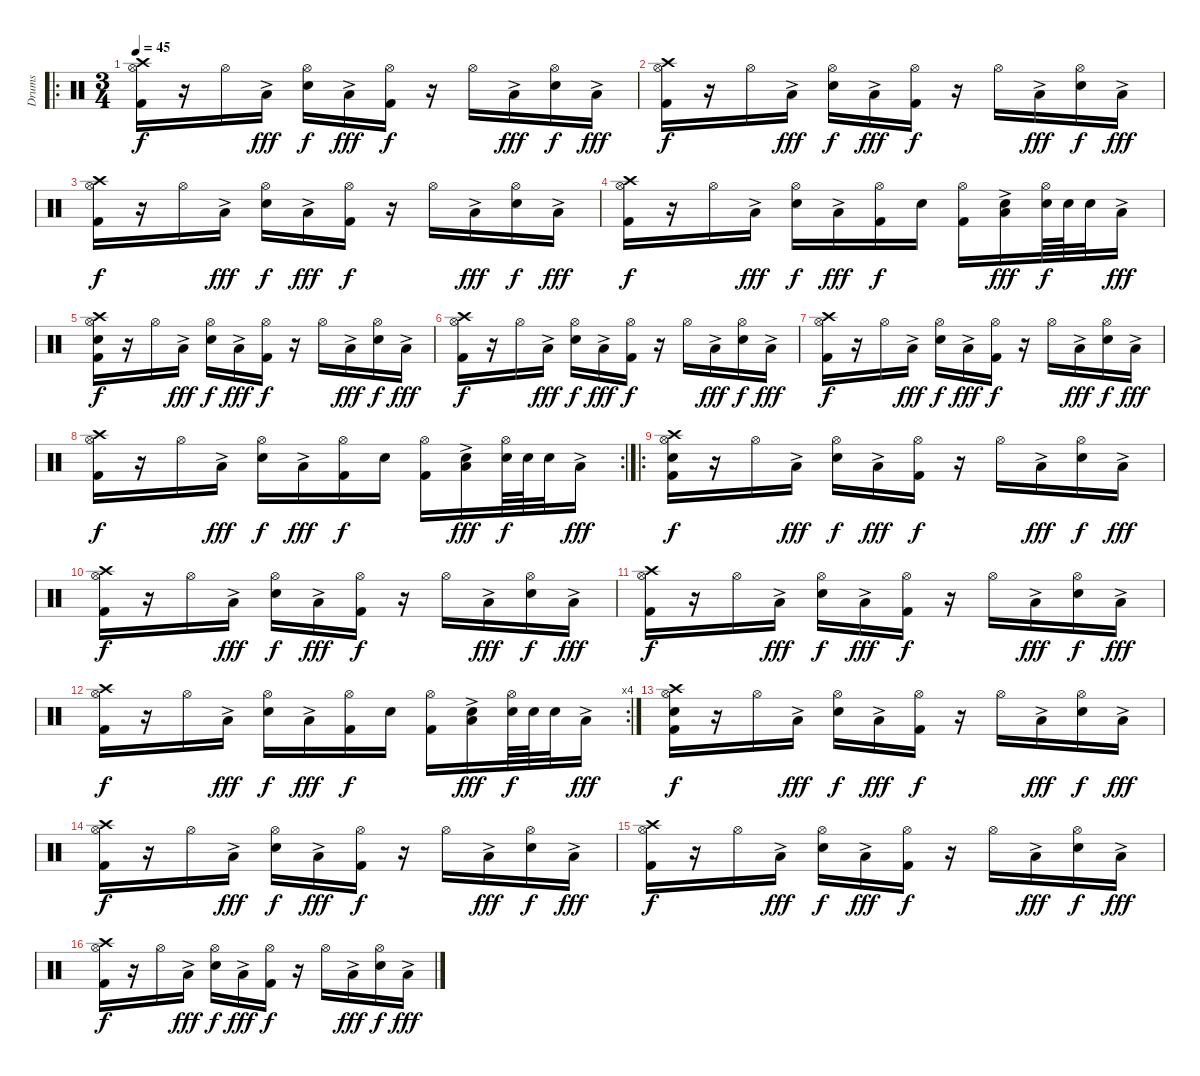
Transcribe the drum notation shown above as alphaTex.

\track ("Drums" "Drums") {instrument percussion}
\staff {score}
\articulation defaults
\ro
\ts (3 4)
\tempo 45
\clef neutral
\ks c
("Crash high (hit)" "Hi-Hat (open)" "Kick (hit) 2").16{dy f volume 16} r.16 "Hi-Hat (open)".16 "Low Floor Tom (hit)"{ac}.16{dy fff} ("Hi-Hat (open)" "Snare (hit) 2").16{dy f} "Low Floor Tom (hit)"{ac}.16{dy fff} ("Hi-Hat (open)" "Kick (hit) 2").16{dy f} r.16 "Hi-Hat (open)".16 "Low Floor Tom (hit)"{ac}.16{dy fff} ("Hi-Hat (open)" "Snare (hit) 2").16{dy f} "Low Floor Tom (hit)"{ac}.16{dy fff} |
("Crash high (hit)" "Hi-Hat (open)" "Kick (hit) 2").16{dy f} r.16 "Hi-Hat (open)".16 "Low Floor Tom (hit)"{ac}.16{dy fff} ("Hi-Hat (open)" "Snare (hit) 2").16{dy f} "Low Floor Tom (hit)"{ac}.16{dy fff} ("Hi-Hat (open)" "Kick (hit) 2").16{dy f} r.16 "Hi-Hat (open)".16 "Low Floor Tom (hit)"{ac}.16{dy fff} ("Hi-Hat (open)" "Snare (hit) 2").16{dy f} "Low Floor Tom (hit)"{ac}.16{dy fff} |
("Crash high (hit)" "Hi-Hat (open)" "Kick (hit) 2").16{dy f} r.16 "Hi-Hat (open)".16 "Low Floor Tom (hit)"{ac}.16{dy fff} ("Hi-Hat (open)" "Snare (hit) 2").16{dy f} "Low Floor Tom (hit)"{ac}.16{dy fff} ("Hi-Hat (open)" "Kick (hit) 2").16{dy f} r.16 "Hi-Hat (open)".16 "Low Floor Tom (hit)"{ac}.16{dy fff} ("Hi-Hat (open)" "Snare (hit) 2").16{dy f} "Low Floor Tom (hit)"{ac}.16{dy fff} |
("Crash high (hit)" "Hi-Hat (open)" "Kick (hit) 2").16{dy f} r.16 "Hi-Hat (open)".16 "Low Floor Tom (hit)"{ac}.16{dy fff} ("Hi-Hat (open)" "Snare (hit) 2").16{dy f} "Low Floor Tom (hit)"{ac}.16{dy fff} ("Hi-Hat (open)" "Kick (hit) 2").16{dy f} "Snare (hit) 2".16 ("Hi-Hat (open)" "Kick (hit) 2").16 ("Snare (hit) 2" "Low Floor Tom (hit)"{ac}).16{dy fff} ("Hi-Hat (open)" "Snare (hit) 2").64{dy f} "Snare (hit) 2".64 "Snare (hit) 2".32 "Low Floor Tom (hit)"{ac}.16{dy fff} |
("Crash high (hit)" "Hi-Hat (open)" "Snare (hit) 2" "Kick (hit) 2").16{dy f} r.16 "Hi-Hat (open)".16 "Low Floor Tom (hit)"{ac}.16{dy fff} ("Hi-Hat (open)" "Snare (hit) 2").16{dy f} "Low Floor Tom (hit)"{ac}.16{dy fff} ("Hi-Hat (open)" "Kick (hit) 2").16{dy f} r.16 "Hi-Hat (open)".16 "Low Floor Tom (hit)"{ac}.16{dy fff} ("Hi-Hat (open)" "Snare (hit) 2").16{dy f} "Low Floor Tom (hit)"{ac}.16{dy fff} |
("Crash high (hit)" "Hi-Hat (open)" "Kick (hit) 2").16{dy f} r.16 "Hi-Hat (open)".16 "Low Floor Tom (hit)"{ac}.16{dy fff} ("Hi-Hat (open)" "Snare (hit) 2").16{dy f} "Low Floor Tom (hit)"{ac}.16{dy fff} ("Hi-Hat (open)" "Kick (hit) 2").16{dy f} r.16 "Hi-Hat (open)".16 "Low Floor Tom (hit)"{ac}.16{dy fff} ("Hi-Hat (open)" "Snare (hit) 2").16{dy f} "Low Floor Tom (hit)"{ac}.16{dy fff} |
("Crash high (hit)" "Hi-Hat (open)" "Kick (hit) 2").16{dy f} r.16 "Hi-Hat (open)".16 "Low Floor Tom (hit)"{ac}.16{dy fff} ("Hi-Hat (open)" "Snare (hit) 2").16{dy f} "Low Floor Tom (hit)"{ac}.16{dy fff} ("Hi-Hat (open)" "Kick (hit) 2").16{dy f} r.16 "Hi-Hat (open)".16 "Low Floor Tom (hit)"{ac}.16{dy fff} ("Hi-Hat (open)" "Snare (hit) 2").16{dy f} "Low Floor Tom (hit)"{ac}.16{dy fff} |
\rc 2
("Crash high (hit)" "Hi-Hat (open)" "Kick (hit) 2").16{dy f} r.16 "Hi-Hat (open)".16 "Low Floor Tom (hit)"{ac}.16{dy fff} ("Hi-Hat (open)" "Snare (hit) 2").16{dy f} "Low Floor Tom (hit)"{ac}.16{dy fff} ("Hi-Hat (open)" "Kick (hit) 2").16{dy f} "Snare (hit) 2".16 ("Hi-Hat (open)" "Kick (hit) 2").16 ("Snare (hit) 2" "Low Floor Tom (hit)"{ac}).16{dy fff} ("Hi-Hat (open)" "Snare (hit) 2").64{dy f} "Snare (hit) 2".64 "Snare (hit) 2".32 "Low Floor Tom (hit)"{ac}.16{dy fff} |
\ro
("Crash high (hit)" "Hi-Hat (open)" "Snare (hit) 2" "Kick (hit) 2").16{dy f} r.16 "Hi-Hat (open)".16 "Low Floor Tom (hit)"{ac}.16{dy fff} ("Hi-Hat (open)" "Snare (hit) 2").16{dy f} "Low Floor Tom (hit)"{ac}.16{dy fff} ("Hi-Hat (open)" "Kick (hit) 2").16{dy f} r.16 "Hi-Hat (open)".16 "Low Floor Tom (hit)"{ac}.16{dy fff} ("Hi-Hat (open)" "Snare (hit) 2").16{dy f} "Low Floor Tom (hit)"{ac}.16{dy fff} |
("Crash high (hit)" "Hi-Hat (open)" "Kick (hit) 2").16{dy f} r.16 "Hi-Hat (open)".16 "Low Floor Tom (hit)"{ac}.16{dy fff} ("Hi-Hat (open)" "Snare (hit) 2").16{dy f} "Low Floor Tom (hit)"{ac}.16{dy fff} ("Hi-Hat (open)" "Kick (hit) 2").16{dy f} r.16 "Hi-Hat (open)".16 "Low Floor Tom (hit)"{ac}.16{dy fff} ("Hi-Hat (open)" "Snare (hit) 2").16{dy f} "Low Floor Tom (hit)"{ac}.16{dy fff} |
("Crash high (hit)" "Hi-Hat (open)" "Kick (hit) 2").16{dy f} r.16 "Hi-Hat (open)".16 "Low Floor Tom (hit)"{ac}.16{dy fff} ("Hi-Hat (open)" "Snare (hit) 2").16{dy f} "Low Floor Tom (hit)"{ac}.16{dy fff} ("Hi-Hat (open)" "Kick (hit) 2").16{dy f} r.16 "Hi-Hat (open)".16 "Low Floor Tom (hit)"{ac}.16{dy fff} ("Hi-Hat (open)" "Snare (hit) 2").16{dy f} "Low Floor Tom (hit)"{ac}.16{dy fff} |
\rc 4
("Crash high (hit)" "Hi-Hat (open)" "Kick (hit) 2").16{dy f} r.16 "Hi-Hat (open)".16 "Low Floor Tom (hit)"{ac}.16{dy fff} ("Hi-Hat (open)" "Snare (hit) 2").16{dy f} "Low Floor Tom (hit)"{ac}.16{dy fff} ("Hi-Hat (open)" "Kick (hit) 2").16{dy f} "Snare (hit) 2".16 ("Hi-Hat (open)" "Kick (hit) 2").16 ("Snare (hit) 2" "Low Floor Tom (hit)"{ac}).16{dy fff} ("Hi-Hat (open)" "Snare (hit) 2").64{dy f} "Snare (hit) 2".64 "Snare (hit) 2".32 "Low Floor Tom (hit)"{ac}.16{dy fff} |
("Crash high (hit)" "Hi-Hat (open)" "Snare (hit) 2" "Kick (hit) 2").16{dy f} r.16 "Hi-Hat (open)".16 "Low Floor Tom (hit)"{ac}.16{dy fff} ("Hi-Hat (open)" "Snare (hit) 2").16{dy f} "Low Floor Tom (hit)"{ac}.16{dy fff} ("Hi-Hat (open)" "Kick (hit) 2").16{dy f} r.16 "Hi-Hat (open)".16 "Low Floor Tom (hit)"{ac}.16{dy fff} ("Hi-Hat (open)" "Snare (hit) 2").16{dy f} "Low Floor Tom (hit)"{ac}.16{dy fff} |
("Crash high (hit)" "Hi-Hat (open)" "Kick (hit) 2").16{dy f} r.16 "Hi-Hat (open)".16 "Low Floor Tom (hit)"{ac}.16{dy fff} ("Hi-Hat (open)" "Snare (hit) 2").16{dy f} "Low Floor Tom (hit)"{ac}.16{dy fff} ("Hi-Hat (open)" "Kick (hit) 2").16{dy f} r.16 "Hi-Hat (open)".16 "Low Floor Tom (hit)"{ac}.16{dy fff} ("Hi-Hat (open)" "Snare (hit) 2").16{dy f} "Low Floor Tom (hit)"{ac}.16{dy fff} |
("Crash high (hit)" "Hi-Hat (open)" "Kick (hit) 2").16{dy f} r.16 "Hi-Hat (open)".16 "Low Floor Tom (hit)"{ac}.16{dy fff} ("Hi-Hat (open)" "Snare (hit) 2").16{dy f} "Low Floor Tom (hit)"{ac}.16{dy fff} ("Hi-Hat (open)" "Kick (hit) 2").16{dy f} r.16 "Hi-Hat (open)".16 "Low Floor Tom (hit)"{ac}.16{dy fff} ("Hi-Hat (open)" "Snare (hit) 2").16{dy f} "Low Floor Tom (hit)"{ac}.16{dy fff} |
("Crash high (hit)" "Hi-Hat (open)" "Kick (hit) 2").16{dy f} r.16 "Hi-Hat (open)".16 "Low Floor Tom (hit)"{ac}.16{dy fff} ("Hi-Hat (open)" "Snare (hit) 2").16{dy f} "Low Floor Tom (hit)"{ac}.16{dy fff} ("Hi-Hat (open)" "Kick (hit) 2").16{dy f} r.16 "Hi-Hat (open)".16 "Low Floor Tom (hit)"{ac}.16{dy fff} ("Hi-Hat (open)" "Snare (hit) 2").16{dy f} "Low Floor Tom (hit)"{ac}.16{dy fff}
